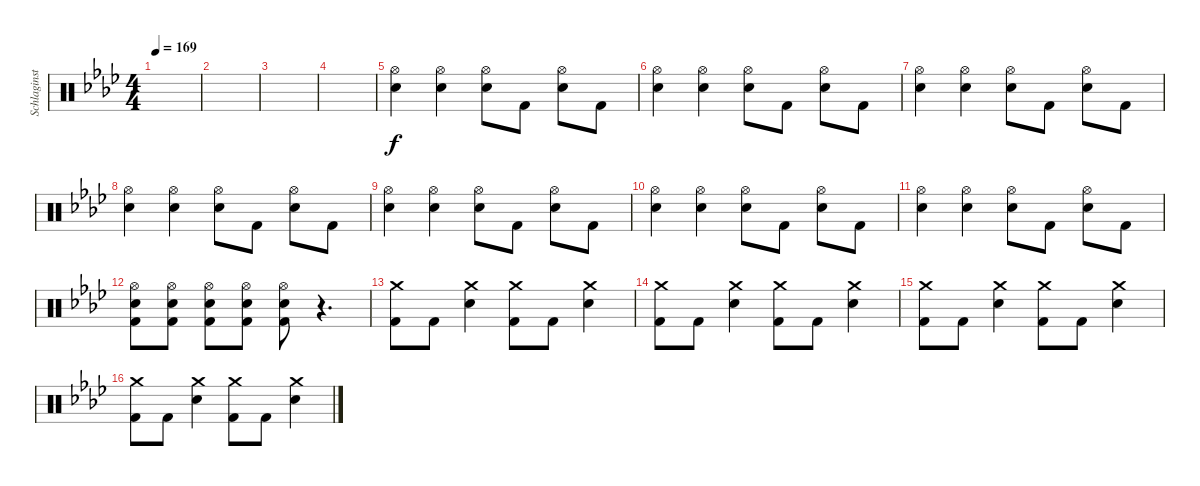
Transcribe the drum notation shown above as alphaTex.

\track ("Schlaginstrumente - Auswahl" "Schlaginst") {instrument percussion}
\staff {score}
\articulation defaults
\ts (4 4)
\tempo 169
\clef neutral
\ks fminor
|
|
|
|
("Hi-Hat (open)" "Electric Snare (hit)").4 ("Hi-Hat (open)" "Electric Snare (hit)").4 ("Hi-Hat (open)" "Electric Snare (hit)").8 "Kick (hit) 2".8 ("Hi-Hat (open)" "Electric Snare (hit)").8 "Kick (hit) 2".8 |
("Hi-Hat (open)" "Electric Snare (hit)").4 ("Hi-Hat (open)" "Electric Snare (hit)").4 ("Hi-Hat (open)" "Electric Snare (hit)").8 "Kick (hit) 2".8 ("Hi-Hat (open)" "Electric Snare (hit)").8 "Kick (hit) 2".8 |
("Hi-Hat (open)" "Electric Snare (hit)").4 ("Hi-Hat (open)" "Electric Snare (hit)").4 ("Hi-Hat (open)" "Electric Snare (hit)").8 "Kick (hit) 2".8 ("Hi-Hat (open)" "Electric Snare (hit)").8 "Kick (hit) 2".8 |
("Hi-Hat (open)" "Electric Snare (hit)").4 ("Hi-Hat (open)" "Electric Snare (hit)").4 ("Hi-Hat (open)" "Electric Snare (hit)").8 "Kick (hit) 2".8 ("Hi-Hat (open)" "Electric Snare (hit)").8 "Kick (hit) 2".8 |
("Hi-Hat (open)" "Electric Snare (hit)").4 ("Hi-Hat (open)" "Electric Snare (hit)").4 ("Hi-Hat (open)" "Electric Snare (hit)").8 "Kick (hit) 2".8 ("Hi-Hat (open)" "Electric Snare (hit)").8 "Kick (hit) 2".8 |
("Hi-Hat (open)" "Electric Snare (hit)").4 ("Hi-Hat (open)" "Electric Snare (hit)").4 ("Hi-Hat (open)" "Electric Snare (hit)").8 "Kick (hit) 2".8 ("Hi-Hat (open)" "Electric Snare (hit)").8 "Kick (hit) 2".8 |
("Hi-Hat (open)" "Electric Snare (hit)").4 ("Hi-Hat (open)" "Electric Snare (hit)").4 ("Hi-Hat (open)" "Electric Snare (hit)").8 "Kick (hit) 2".8 ("Hi-Hat (open)" "Electric Snare (hit)").8 "Kick (hit) 2".8 |
("Hi-Hat (open)" "Electric Snare (hit)" "Kick (hit) 2").8 ("Hi-Hat (open)" "Electric Snare (hit)" "Kick (hit) 2").8 ("Hi-Hat (open)" "Electric Snare (hit)" "Kick (hit) 2").8 ("Hi-Hat (open)" "Electric Snare (hit)" "Kick (hit) 2").8 ("Hi-Hat (open)" "Electric Snare (hit)" "Kick (hit) 2").8 r.4{d} |
("Crash medium (hit)" "Kick (hit) 2").8 "Kick (hit) 2".8 ("Crash medium (hit)" "Electric Snare (hit)").4 ("Crash medium (hit)" "Kick (hit) 2").8 "Kick (hit) 2".8 ("Crash medium (hit)" "Electric Snare (hit)").4 |
("Crash medium (hit)" "Kick (hit) 2").8 "Kick (hit) 2".8 ("Crash medium (hit)" "Electric Snare (hit)").4 ("Crash medium (hit)" "Kick (hit) 2").8 "Kick (hit) 2".8 ("Crash medium (hit)" "Electric Snare (hit)").4 |
("Crash medium (hit)" "Kick (hit) 2").8 "Kick (hit) 2".8 ("Crash medium (hit)" "Electric Snare (hit)").4 ("Crash medium (hit)" "Kick (hit) 2").8 "Kick (hit) 2".8 ("Crash medium (hit)" "Electric Snare (hit)").4 |
("Crash medium (hit)" "Kick (hit) 2").8 "Kick (hit) 2".8 ("Crash medium (hit)" "Electric Snare (hit)").4 ("Crash medium (hit)" "Kick (hit) 2").8 "Kick (hit) 2".8 ("Crash medium (hit)" "Electric Snare (hit)").4
